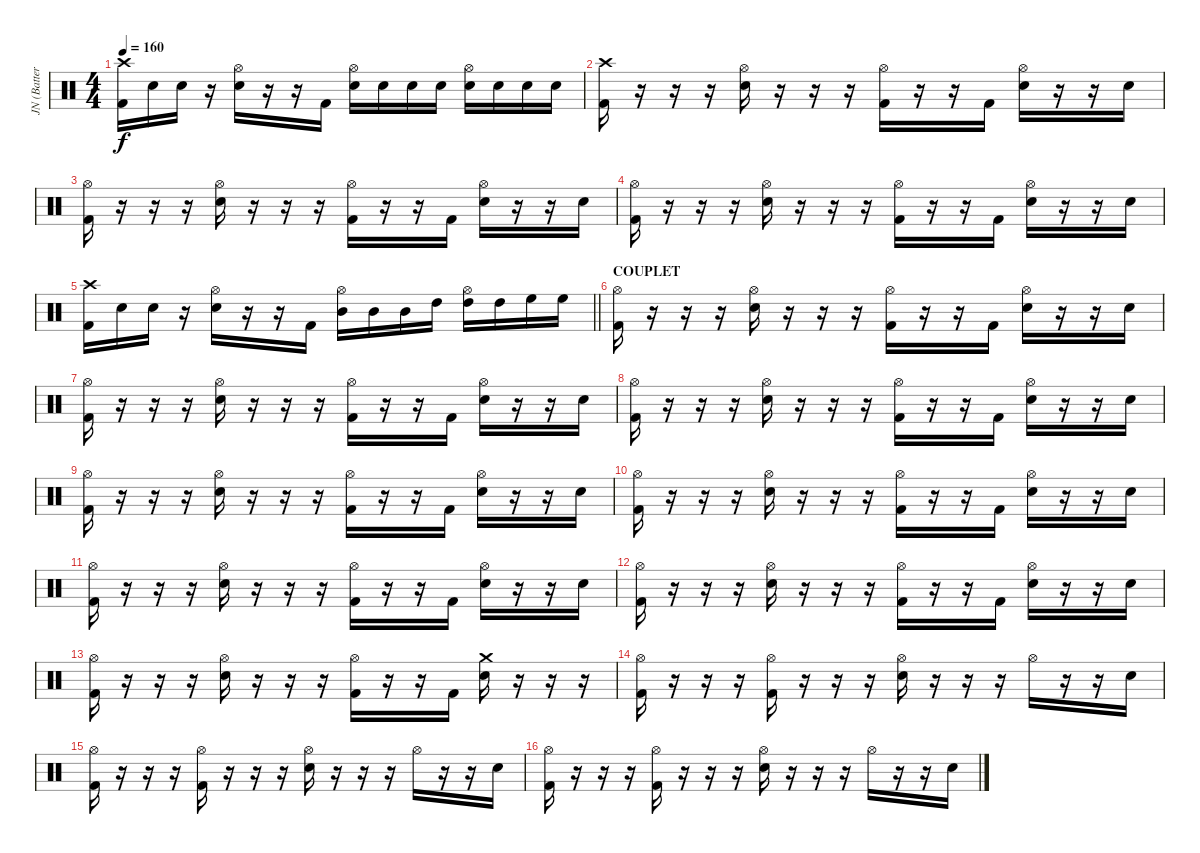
\track ("JN (Batterie)" "JN (Batter") {instrument percussion}
\staff {score}
\articulation defaults
\ts (4 4)
\tempo 160
\clef neutral
\ks c
("Crash high (hit)" "Kick (hit) 2").16{dy f} "Electric Snare (hit)".16 "Electric Snare (hit)".16 r.16 ("Hi-Hat (open)" "Electric Snare (hit)").16 r.16 r.16 "Kick (hit) 2".16 ("Hi-Hat (open)" "Electric Snare (hit)").16 "Electric Snare (hit)".16 "Electric Snare (hit)".16 "Electric Snare (hit)".16 ("Hi-Hat (open)" "Snare (hit) 2").16 "Electric Snare (hit)".16 "Electric Snare (hit)".16 "Electric Snare (hit)".16 |
("Crash high (hit)" "Kick (hit) 2").16 r.16 r.16 r.16 ("Hi-Hat (open)" "Electric Snare (hit)").16 r.16 r.16 r.16 ("Hi-Hat (open)" "Kick (hit) 2").16 r.16 r.16 "Kick (hit) 2".16 ("Hi-Hat (open)" "Electric Snare (hit)").16 r.16 r.16 "Electric Snare (hit)".16 |
("Hi-Hat (open)" "Kick (hit) 2").16 r.16 r.16 r.16 ("Hi-Hat (open)" "Electric Snare (hit)").16 r.16 r.16 r.16 ("Hi-Hat (open)" "Kick (hit) 2").16 r.16 r.16 "Kick (hit) 2".16 ("Hi-Hat (open)" "Electric Snare (hit)").16 r.16 r.16 "Electric Snare (hit)".16 |
("Hi-Hat (open)" "Kick (hit) 2").16 r.16 r.16 r.16 ("Hi-Hat (open)" "Electric Snare (hit)").16 r.16 r.16 r.16 ("Hi-Hat (open)" "Kick (hit) 2").16 r.16 r.16 "Kick (hit) 2".16 ("Hi-Hat (open)" "Electric Snare (hit)").16 r.16 r.16 "Electric Snare (hit)".16 |
\barLineRight lightlight
("Crash high (hit)" "Kick (hit) 2").16 "Electric Snare (hit)".16 "Electric Snare (hit)".16 r.16 ("Hi-Hat (open)" "Electric Snare (hit)").16 r.16 r.16 "Kick (hit) 2".16 ("Hi-Hat (open)" "Mid Tom (hit)").16 "Mid Tom (hit)".16 "Mid Tom (hit)".16 "High Tom (hit)".16 ("Hi-Hat (open)" "High Tom (hit)").16 "High Tom (hit)".16 "High Floor Tom (hit)".16 "High Floor Tom (hit)".16 |
\section ("" "COUPLET")
("Hi-Hat (open)" "Kick (hit) 2").16 r.16 r.16 r.16 ("Hi-Hat (open)" "Electric Snare (hit)").16 r.16 r.16 r.16 ("Hi-Hat (open)" "Kick (hit) 2").16 r.16 r.16 "Kick (hit) 2".16 ("Hi-Hat (open)" "Electric Snare (hit)").16 r.16 r.16 "Electric Snare (hit)".16 |
("Hi-Hat (open)" "Kick (hit) 2").16 r.16 r.16 r.16 ("Hi-Hat (open)" "Electric Snare (hit)").16 r.16 r.16 r.16 ("Hi-Hat (open)" "Kick (hit) 2").16 r.16 r.16 "Kick (hit) 2".16 ("Hi-Hat (open)" "Electric Snare (hit)").16 r.16 r.16 "Electric Snare (hit)".16 |
("Hi-Hat (open)" "Kick (hit) 2").16 r.16 r.16 r.16 ("Hi-Hat (open)" "Electric Snare (hit)").16 r.16 r.16 r.16 ("Hi-Hat (open)" "Kick (hit) 2").16 r.16 r.16 "Kick (hit) 2".16 ("Hi-Hat (open)" "Electric Snare (hit)").16 r.16 r.16 "Electric Snare (hit)".16 |
("Hi-Hat (open)" "Kick (hit) 2").16 r.16 r.16 r.16 ("Hi-Hat (open)" "Electric Snare (hit)").16 r.16 r.16 r.16 ("Hi-Hat (open)" "Kick (hit) 2").16 r.16 r.16 "Kick (hit) 2".16 ("Hi-Hat (open)" "Electric Snare (hit)").16 r.16 r.16 "Electric Snare (hit)".16 |
("Hi-Hat (open)" "Kick (hit) 2").16 r.16 r.16 r.16 ("Hi-Hat (open)" "Electric Snare (hit)").16 r.16 r.16 r.16 ("Hi-Hat (open)" "Kick (hit) 2").16 r.16 r.16 "Kick (hit) 2".16 ("Hi-Hat (open)" "Electric Snare (hit)").16 r.16 r.16 "Electric Snare (hit)".16 |
("Hi-Hat (open)" "Kick (hit) 2").16 r.16 r.16 r.16 ("Hi-Hat (open)" "Electric Snare (hit)").16 r.16 r.16 r.16 ("Hi-Hat (open)" "Kick (hit) 2").16 r.16 r.16 "Kick (hit) 2".16 ("Hi-Hat (open)" "Electric Snare (hit)").16 r.16 r.16 "Electric Snare (hit)".16 |
("Hi-Hat (open)" "Kick (hit) 2").16 r.16 r.16 r.16 ("Hi-Hat (open)" "Electric Snare (hit)").16 r.16 r.16 r.16 ("Hi-Hat (open)" "Kick (hit) 2").16 r.16 r.16 "Kick (hit) 2".16 ("Hi-Hat (open)" "Electric Snare (hit)").16 r.16 r.16 "Electric Snare (hit)".16 |
("Hi-Hat (open)" "Kick (hit) 2").16 r.16 r.16 r.16 ("Hi-Hat (open)" "Electric Snare (hit)").16 r.16 r.16 r.16 ("Hi-Hat (open)" "Kick (hit) 2").16 r.16 r.16 "Kick (hit) 2".16 ("Crash medium (hit)" "Electric Snare (hit)").16 r.16 r.16 r.16 |
("Hi-Hat (open)" "Kick (hit) 2").16 r.16 r.16 r.16 ("Hi-Hat (open)" "Kick (hit) 2").16 r.16 r.16 r.16 ("Hi-Hat (open)" "Electric Snare (hit)").16 r.16 r.16 r.16 "Hi-Hat (open)".16 r.16 r.16 "Electric Snare (hit)".16 |
("Hi-Hat (open)" "Kick (hit) 2").16 r.16 r.16 r.16 ("Hi-Hat (open)" "Kick (hit) 2").16 r.16 r.16 r.16 ("Hi-Hat (open)" "Electric Snare (hit)").16 r.16 r.16 r.16 "Hi-Hat (open)".16 r.16 r.16 "Electric Snare (hit)".16 |
("Hi-Hat (open)" "Kick (hit) 2").16 r.16 r.16 r.16 ("Hi-Hat (open)" "Kick (hit) 2").16 r.16 r.16 r.16 ("Hi-Hat (open)" "Electric Snare (hit)").16 r.16 r.16 r.16 "Hi-Hat (open)".16 r.16 r.16 "Electric Snare (hit)".16
